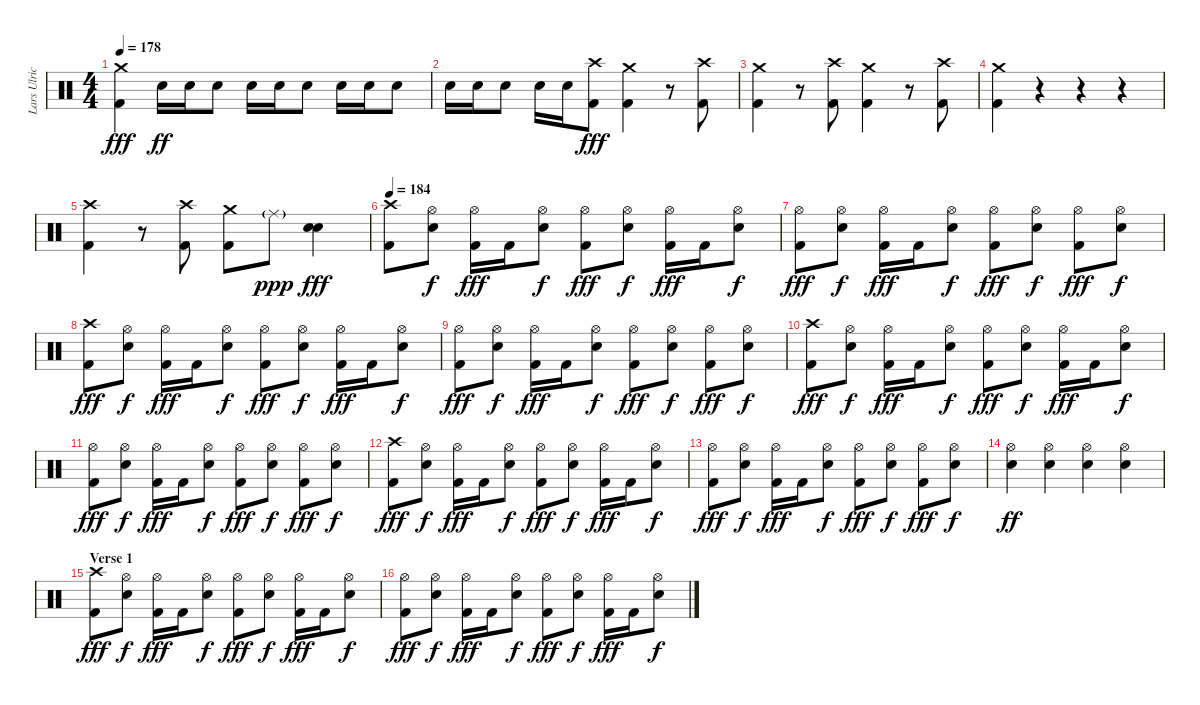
\track ("Lars Ulrich" "Lars Ulric") {instrument percussion}
\staff {score}
\articulation defaults
\ts (4 4)
\tempo 178
\clef neutral
\ks c
("Crash medium (hit)" "Kick (hit) 2").4{dy fff} "Electric Snare (hit)".16{dy ff} "Electric Snare (hit)".16 "Electric Snare (hit)".8 "Electric Snare (hit)".16 "Electric Snare (hit)".16 "Electric Snare (hit)".8 "Electric Snare (hit)".16 "Electric Snare (hit)".16 "Electric Snare (hit)".8 |
"Electric Snare (hit)".16 "Electric Snare (hit)".16 "Electric Snare (hit)".8 "Electric Snare (hit)".16 "Electric Snare (hit)".16 ("Crash high (hit)" "Kick (hit) 2").8{dy fff} ("Crash medium (hit)" "Kick (hit) 2").4 r.8 ("Crash high (hit)" "Kick (hit) 2").8 |
("Crash medium (hit)" "Kick (hit) 2").4 r.8 ("Crash high (hit)" "Kick (hit) 2").8 ("Crash medium (hit)" "Kick (hit) 2").4 r.8 ("Crash high (hit)" "Kick (hit) 2").8 |
("Crash medium (hit)" "Kick (hit) 2").4 r.4 r.4 r.4 |
("Crash high (hit)" "Kick (hit) 2").4 r.8 ("Crash high (hit)" "Kick (hit) 2").8 ("Crash medium (hit)" "Kick (hit) 2").8 "Ride (middle)"{g}.8{dy ppp} ("Electric Snare (hit)" "Electric Snare (hit)").4{bu 120 dy fff} |
\tempo 184
("Crash high (hit)" "Kick (hit) 2").8 ("Hi-Hat (open)" "Electric Snare (hit)").8{dy f} ("Hi-Hat (open)" "Kick (hit) 2").16{dy fff} "Kick (hit) 2".16 ("Hi-Hat (open)" "Electric Snare (hit)").8{dy f} ("Hi-Hat (open)" "Kick (hit) 2").8{dy fff} ("Hi-Hat (open)" "Electric Snare (hit)").8{dy f} ("Hi-Hat (open)" "Kick (hit) 2").16{dy fff} "Kick (hit) 2".16 ("Hi-Hat (open)" "Electric Snare (hit)").8{dy f} |
("Hi-Hat (open)" "Kick (hit) 2").8{dy fff} ("Hi-Hat (open)" "Electric Snare (hit)").8{dy f} ("Hi-Hat (open)" "Kick (hit) 2").16{dy fff} "Kick (hit) 2".16 ("Hi-Hat (open)" "Electric Snare (hit)").8{dy f} ("Hi-Hat (open)" "Kick (hit) 2").8{dy fff} ("Hi-Hat (open)" "Electric Snare (hit)").8{dy f} ("Hi-Hat (open)" "Kick (hit) 2").8{dy fff} ("Hi-Hat (open)" "Electric Snare (hit)").8{dy f} |
("Crash high (hit)" "Kick (hit) 2").8{dy fff} ("Hi-Hat (open)" "Electric Snare (hit)").8{dy f} ("Hi-Hat (open)" "Kick (hit) 2").16{dy fff} "Kick (hit) 2".16 ("Hi-Hat (open)" "Electric Snare (hit)").8{dy f} ("Hi-Hat (open)" "Kick (hit) 2").8{dy fff} ("Hi-Hat (open)" "Electric Snare (hit)").8{dy f} ("Hi-Hat (open)" "Kick (hit) 2").16{dy fff} "Kick (hit) 2".16 ("Hi-Hat (open)" "Electric Snare (hit)").8{dy f} |
("Hi-Hat (open)" "Kick (hit) 2").8{dy fff} ("Hi-Hat (open)" "Electric Snare (hit)").8{dy f} ("Hi-Hat (open)" "Kick (hit) 2").16{dy fff} "Kick (hit) 2".16 ("Hi-Hat (open)" "Electric Snare (hit)").8{dy f} ("Hi-Hat (open)" "Kick (hit) 2").8{dy fff} ("Hi-Hat (open)" "Electric Snare (hit)").8{dy f} ("Hi-Hat (open)" "Kick (hit) 2").8{dy fff} ("Hi-Hat (open)" "Electric Snare (hit)").8{dy f} |
("Crash high (hit)" "Kick (hit) 2").8{dy fff} ("Hi-Hat (open)" "Electric Snare (hit)").8{dy f} ("Hi-Hat (open)" "Kick (hit) 2").16{dy fff} "Kick (hit) 2".16 ("Hi-Hat (open)" "Electric Snare (hit)").8{dy f} ("Hi-Hat (open)" "Kick (hit) 2").8{dy fff} ("Hi-Hat (open)" "Electric Snare (hit)").8{dy f} ("Hi-Hat (open)" "Kick (hit) 2").16{dy fff} "Kick (hit) 2".16 ("Hi-Hat (open)" "Electric Snare (hit)").8{dy f} |
("Hi-Hat (open)" "Kick (hit) 2").8{dy fff} ("Hi-Hat (open)" "Electric Snare (hit)").8{dy f} ("Hi-Hat (open)" "Kick (hit) 2").16{dy fff} "Kick (hit) 2".16 ("Hi-Hat (open)" "Electric Snare (hit)").8{dy f} ("Hi-Hat (open)" "Kick (hit) 2").8{dy fff} ("Hi-Hat (open)" "Electric Snare (hit)").8{dy f} ("Hi-Hat (open)" "Kick (hit) 2").8{dy fff} ("Hi-Hat (open)" "Electric Snare (hit)").8{dy f} |
("Crash high (hit)" "Kick (hit) 2").8{dy fff} ("Hi-Hat (open)" "Electric Snare (hit)").8{dy f} ("Hi-Hat (open)" "Kick (hit) 2").16{dy fff} "Kick (hit) 2".16 ("Hi-Hat (open)" "Electric Snare (hit)").8{dy f} ("Hi-Hat (open)" "Kick (hit) 2").8{dy fff} ("Hi-Hat (open)" "Electric Snare (hit)").8{dy f} ("Hi-Hat (open)" "Kick (hit) 2").16{dy fff} "Kick (hit) 2".16 ("Hi-Hat (open)" "Electric Snare (hit)").8{dy f} |
("Hi-Hat (open)" "Kick (hit) 2").8{dy fff} ("Hi-Hat (open)" "Electric Snare (hit)").8{dy f} ("Hi-Hat (open)" "Kick (hit) 2").16{dy fff} "Kick (hit) 2".16 ("Hi-Hat (open)" "Electric Snare (hit)").8{dy f} ("Hi-Hat (open)" "Kick (hit) 2").8{dy fff} ("Hi-Hat (open)" "Electric Snare (hit)").8{dy f} ("Hi-Hat (open)" "Kick (hit) 2").8{dy fff} ("Hi-Hat (open)" "Electric Snare (hit)").8{dy f} |
("Hi-Hat (open)" "Electric Snare (hit)").4{dy ff} ("Hi-Hat (open)" "Electric Snare (hit)").4 ("Hi-Hat (open)" "Electric Snare (hit)").4 ("Hi-Hat (open)" "Electric Snare (hit)").4 |
\section ("" "Verse 1")
("Crash high (hit)" "Kick (hit) 2").8{dy fff} ("Hi-Hat (open)" "Electric Snare (hit)").8{dy f} ("Hi-Hat (open)" "Kick (hit) 2").16{dy fff} "Kick (hit) 2".16 ("Hi-Hat (open)" "Electric Snare (hit)").8{dy f} ("Hi-Hat (open)" "Kick (hit) 2").8{dy fff} ("Hi-Hat (open)" "Electric Snare (hit)").8{dy f} ("Hi-Hat (open)" "Kick (hit) 2").16{dy fff} "Kick (hit) 2".16 ("Hi-Hat (open)" "Electric Snare (hit)").8{dy f} |
("Hi-Hat (open)" "Kick (hit) 2").8{dy fff} ("Hi-Hat (open)" "Electric Snare (hit)").8{dy f} ("Hi-Hat (open)" "Kick (hit) 2").16{dy fff} "Kick (hit) 2".16 ("Hi-Hat (open)" "Electric Snare (hit)").8{dy f} ("Hi-Hat (open)" "Kick (hit) 2").8{dy fff} ("Hi-Hat (open)" "Electric Snare (hit)").8{dy f} ("Hi-Hat (open)" "Kick (hit) 2").16{dy fff} "Kick (hit) 2".16 ("Hi-Hat (open)" "Electric Snare (hit)").8{dy f}
